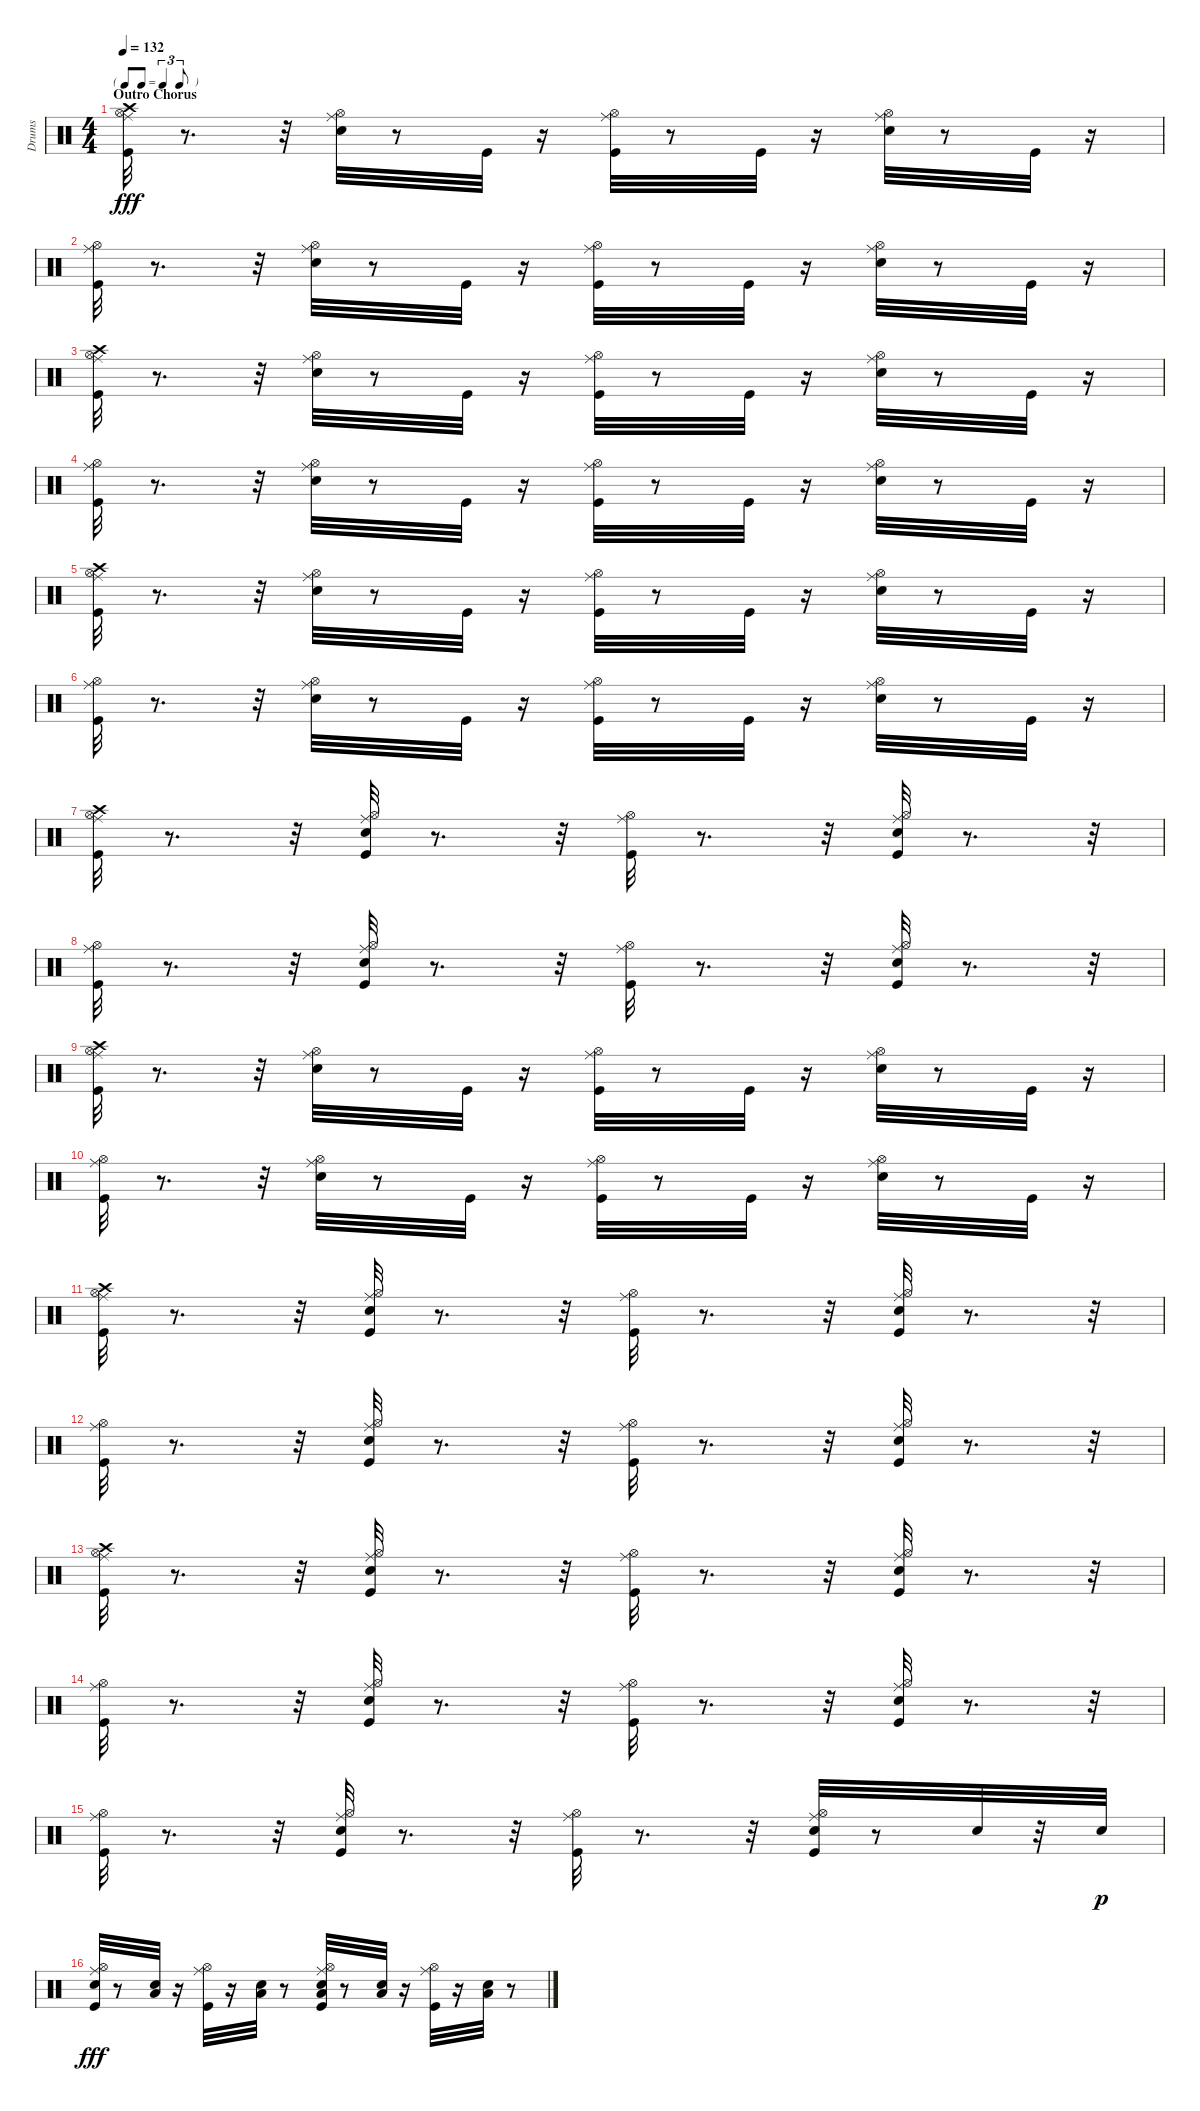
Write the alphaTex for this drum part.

\track ("Drums" "Drums") {instrument percussion}
\staff {score}
\articulation defaults
\ts (4 4)
\tf triplet8th
\section ("" "Outro Chorus")
\tempo 132
\clef neutral
\ks c
("Kick (hit)" "Crash high (hit)" "Ride (middle)" "Hi-Hat (open)").32{dy fff} r.8{d} r.32 ("Snare (hit) 2" "Ride (middle)" "Hi-Hat (open)").32 r.8 "Kick (hit)".32 r.16 ("Kick (hit)" "Ride (middle)" "Hi-Hat (open)").32 r.8 "Kick (hit)".32 r.16 ("Snare (hit) 2" "Ride (middle)" "Hi-Hat (open)").32 r.8 "Kick (hit)".32 r.16 |
("Kick (hit)" "Ride (middle)" "Hi-Hat (open)").32 r.8{d} r.32 ("Snare (hit) 2" "Ride (middle)" "Hi-Hat (open)").32 r.8 "Kick (hit)".32 r.16 ("Kick (hit)" "Ride (middle)" "Hi-Hat (open)").32 r.8 "Kick (hit)".32 r.16 ("Snare (hit) 2" "Ride (middle)" "Hi-Hat (open)").32 r.8 "Kick (hit)".32 r.16 |
("Kick (hit)" "Crash high (hit)" "Ride (middle)" "Hi-Hat (open)").32 r.8{d} r.32 ("Snare (hit) 2" "Ride (middle)" "Hi-Hat (open)").32 r.8 "Kick (hit)".32 r.16 ("Kick (hit)" "Ride (middle)" "Hi-Hat (open)").32 r.8 "Kick (hit)".32 r.16 ("Snare (hit) 2" "Ride (middle)" "Hi-Hat (open)").32 r.8 "Kick (hit)".32 r.16 |
("Kick (hit)" "Ride (middle)" "Hi-Hat (open)").32 r.8{d} r.32 ("Snare (hit) 2" "Ride (middle)" "Hi-Hat (open)").32 r.8 "Kick (hit)".32 r.16 ("Kick (hit)" "Ride (middle)" "Hi-Hat (open)").32 r.8 "Kick (hit)".32 r.16 ("Snare (hit) 2" "Ride (middle)" "Hi-Hat (open)").32 r.8 "Kick (hit)".32 r.16 |
("Kick (hit)" "Crash high (hit)" "Ride (middle)" "Hi-Hat (open)").32 r.8{d} r.32 ("Snare (hit) 2" "Ride (middle)" "Hi-Hat (open)").32 r.8 "Kick (hit)".32 r.16 ("Kick (hit)" "Ride (middle)" "Hi-Hat (open)").32 r.8 "Kick (hit)".32 r.16 ("Snare (hit) 2" "Ride (middle)" "Hi-Hat (open)").32 r.8 "Kick (hit)".32 r.16 |
("Kick (hit)" "Ride (middle)" "Hi-Hat (open)").32 r.8{d} r.32 ("Snare (hit) 2" "Ride (middle)" "Hi-Hat (open)").32 r.8 "Kick (hit)".32 r.16 ("Kick (hit)" "Ride (middle)" "Hi-Hat (open)").32 r.8 "Kick (hit)".32 r.16 ("Snare (hit) 2" "Ride (middle)" "Hi-Hat (open)").32 r.8 "Kick (hit)".32 r.16 |
("Kick (hit)" "Crash high (hit)" "Ride (middle)" "Hi-Hat (open)").32 r.8{d} r.32 ("Snare (hit) 2" "Kick (hit)" "Ride (middle)" "Hi-Hat (open)").32 r.8{d} r.32 ("Kick (hit)" "Ride (middle)" "Hi-Hat (open)").32 r.8{d} r.32 ("Snare (hit) 2" "Kick (hit)" "Ride (middle)" "Hi-Hat (open)").32 r.8{d} r.32 |
("Kick (hit)" "Ride (middle)" "Hi-Hat (open)").32 r.8{d} r.32 ("Snare (hit) 2" "Kick (hit)" "Ride (middle)" "Hi-Hat (open)").32 r.8{d} r.32 ("Kick (hit)" "Ride (middle)" "Hi-Hat (open)").32 r.8{d} r.32 ("Snare (hit) 2" "Kick (hit)" "Ride (middle)" "Hi-Hat (open)").32 r.8{d} r.32 |
("Kick (hit)" "Crash high (hit)" "Ride (middle)" "Hi-Hat (open)").32 r.8{d} r.32 ("Snare (hit) 2" "Ride (middle)" "Hi-Hat (open)").32 r.8 "Kick (hit)".32 r.16 ("Kick (hit)" "Ride (middle)" "Hi-Hat (open)").32 r.8 "Kick (hit)".32 r.16 ("Snare (hit) 2" "Ride (middle)" "Hi-Hat (open)").32 r.8 "Kick (hit)".32 r.16 |
("Kick (hit)" "Ride (middle)" "Hi-Hat (open)").32 r.8{d} r.32 ("Snare (hit) 2" "Ride (middle)" "Hi-Hat (open)").32 r.8 "Kick (hit)".32 r.16 ("Kick (hit)" "Ride (middle)" "Hi-Hat (open)").32 r.8 "Kick (hit)".32 r.16 ("Snare (hit) 2" "Ride (middle)" "Hi-Hat (open)").32 r.8 "Kick (hit)".32 r.16 |
("Kick (hit)" "Crash high (hit)" "Ride (middle)" "Hi-Hat (open)").32 r.8{d} r.32 ("Snare (hit) 2" "Kick (hit)" "Ride (middle)" "Hi-Hat (open)").32 r.8{d} r.32 ("Kick (hit)" "Ride (middle)" "Hi-Hat (open)").32 r.8{d} r.32 ("Snare (hit) 2" "Kick (hit)" "Ride (middle)" "Hi-Hat (open)").32 r.8{d} r.32 |
("Kick (hit)" "Ride (middle)" "Hi-Hat (open)").32 r.8{d} r.32 ("Snare (hit) 2" "Kick (hit)" "Ride (middle)" "Hi-Hat (open)").32 r.8{d} r.32 ("Kick (hit)" "Ride (middle)" "Hi-Hat (open)").32 r.8{d} r.32 ("Snare (hit) 2" "Kick (hit)" "Ride (middle)" "Hi-Hat (open)").32 r.8{d} r.32 |
("Kick (hit)" "Crash high (hit)" "Ride (middle)" "Hi-Hat (open)").32 r.8{d} r.32 ("Snare (hit) 2" "Kick (hit)" "Ride (middle)" "Hi-Hat (open)").32 r.8{d} r.32 ("Kick (hit)" "Ride (middle)" "Hi-Hat (open)").32 r.8{d} r.32 ("Snare (hit) 2" "Kick (hit)" "Ride (middle)" "Hi-Hat (open)").32 r.8{d} r.32 |
("Kick (hit)" "Ride (middle)" "Hi-Hat (open)").32 r.8{d} r.32 ("Snare (hit) 2" "Kick (hit)" "Ride (middle)" "Hi-Hat (open)").32 r.8{d} r.32 ("Kick (hit)" "Ride (middle)" "Hi-Hat (open)").32 r.8{d} r.32 ("Snare (hit) 2" "Kick (hit)" "Ride (middle)" "Hi-Hat (open)").32 r.8{d} r.32 |
("Kick (hit)" "Ride (middle)" "Hi-Hat (open)").32 r.8{d} r.32 ("Snare (hit) 2" "Kick (hit)" "Ride (middle)" "Hi-Hat (open)").32 r.8{d} r.32 ("Kick (hit)" "Ride (middle)" "Hi-Hat (open)").32 r.8{d} r.32 ("Snare (hit) 2" "Kick (hit)" "Ride (middle)" "Hi-Hat (open)").32 r.8 "Snare (hit) 2".32 r.32 "Snare (hit) 2".32{dy p} |
("Snare (hit) 2" "Kick (hit)" "Ride (middle)" "Hi-Hat (open)").32{dy fff} r.8 ("Snare (hit) 2" "Low Tom (hit)").32 r.16 ("Kick (hit)" "Ride (middle)" "Hi-Hat (open)").32 r.16 ("Snare (hit) 2" "Low Tom (hit)").32 r.8 ("Snare (hit) 2" "Low Tom (hit)" "Kick (hit)" "Ride (middle)" "Hi-Hat (open)").32 r.8 ("Snare (hit) 2" "Low Tom (hit)").32 r.16 ("Kick (hit)" "Ride (middle)" "Hi-Hat (open)").32 r.16 ("Snare (hit) 2" "Low Tom (hit)").32 r.8
